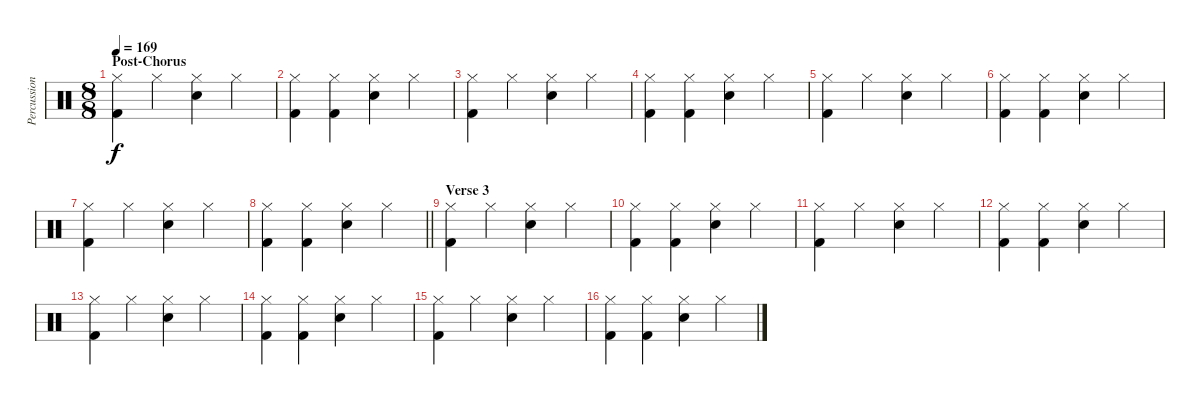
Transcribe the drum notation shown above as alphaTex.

\track ("Percussion" "Percussion") {instrument percussion}
\staff {score}
\articulation defaults
\ts (8 8)
\section ("" "Post-Chorus")
\tempo 169
\clef neutral
\ks c
("Hi-Hat (closed)" "Kick (hit) 2").4{dy f} "Hi-Hat (closed)".4 ("Hi-Hat (closed)" "Snare (hit) 2").4 "Hi-Hat (closed)".4 |
("Hi-Hat (closed)" "Kick (hit) 2").4 ("Hi-Hat (closed)" "Kick (hit) 2").4 ("Hi-Hat (closed)" "Snare (hit) 2").4 "Hi-Hat (closed)".4 |
("Hi-Hat (closed)" "Kick (hit) 2").4 "Hi-Hat (closed)".4 ("Hi-Hat (closed)" "Snare (hit) 2").4 "Hi-Hat (closed)".4 |
("Hi-Hat (closed)" "Kick (hit) 2").4 ("Hi-Hat (closed)" "Kick (hit) 2").4 ("Hi-Hat (closed)" "Snare (hit) 2").4 "Hi-Hat (closed)".4 |
("Hi-Hat (closed)" "Kick (hit) 2").4 "Hi-Hat (closed)".4 ("Hi-Hat (closed)" "Snare (hit) 2").4 "Hi-Hat (closed)".4 |
("Hi-Hat (closed)" "Kick (hit) 2").4 ("Hi-Hat (closed)" "Kick (hit) 2").4 ("Hi-Hat (closed)" "Snare (hit) 2").4 "Hi-Hat (closed)".4 |
("Hi-Hat (closed)" "Kick (hit) 2").4 "Hi-Hat (closed)".4 ("Hi-Hat (closed)" "Snare (hit) 2").4 "Hi-Hat (closed)".4 |
\barLineRight lightlight
("Hi-Hat (closed)" "Kick (hit) 2").4 ("Hi-Hat (closed)" "Kick (hit) 2").4 ("Hi-Hat (closed)" "Snare (hit) 2").4 "Hi-Hat (closed)".4 |
\section ("" "Verse 3")
("Hi-Hat (closed)" "Kick (hit) 2").4 "Hi-Hat (closed)".4 ("Hi-Hat (closed)" "Snare (hit) 2").4 "Hi-Hat (closed)".4 |
("Hi-Hat (closed)" "Kick (hit) 2").4 ("Hi-Hat (closed)" "Kick (hit) 2").4 ("Hi-Hat (closed)" "Snare (hit) 2").4 "Hi-Hat (closed)".4 |
("Hi-Hat (closed)" "Kick (hit) 2").4 "Hi-Hat (closed)".4 ("Hi-Hat (closed)" "Snare (hit) 2").4 "Hi-Hat (closed)".4 |
("Hi-Hat (closed)" "Kick (hit) 2").4 ("Hi-Hat (closed)" "Kick (hit) 2").4 ("Hi-Hat (closed)" "Snare (hit) 2").4 "Hi-Hat (closed)".4 |
("Hi-Hat (closed)" "Kick (hit) 2").4 "Hi-Hat (closed)".4 ("Hi-Hat (closed)" "Snare (hit) 2").4 "Hi-Hat (closed)".4 |
("Hi-Hat (closed)" "Kick (hit) 2").4 ("Hi-Hat (closed)" "Kick (hit) 2").4 ("Hi-Hat (closed)" "Snare (hit) 2").4 "Hi-Hat (closed)".4 |
("Hi-Hat (closed)" "Kick (hit) 2").4 "Hi-Hat (closed)".4 ("Hi-Hat (closed)" "Snare (hit) 2").4 "Hi-Hat (closed)".4 |
("Hi-Hat (closed)" "Kick (hit) 2").4 ("Hi-Hat (closed)" "Kick (hit) 2").4 ("Hi-Hat (closed)" "Snare (hit) 2").4 "Hi-Hat (closed)".4
